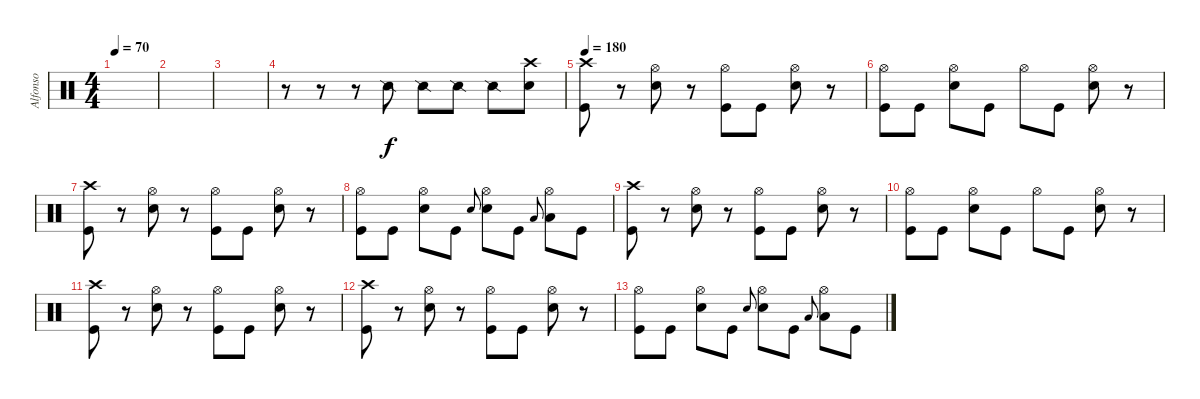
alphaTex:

\track ("Alfonso" "Alfonso") {instrument percussion}
\staff {score}
\articulation defaults
\ts (4 4)
\tempo 70
\clef neutral
\ks c
|
|
|
r.8 r.8 r.8 "Snare (side stick) 2".8 "Snare (side stick) 2".8 "Snare (side stick) 2".8 "Snare (side stick) 2".8 ("Crash high (hit)" "Electric Snare (hit)").8 |
\tempo 180
("Crash high (hit)" "Kick (hit)").8 r.8 ("Hi-Hat (open)" "Snare (hit) 2").8 r.8 ("Hi-Hat (open)" "Kick (hit)").8 "Kick (hit)".8 ("Hi-Hat (open)" "Snare (hit) 2").8 r.8 |
("Kick (hit)" "Hi-Hat (open)").8 "Kick (hit)".8 ("Snare (hit) 2" "Hi-Hat (open)").8 "Kick (hit)".8 "Hi-Hat (open)".8 "Kick (hit)".8 ("Hi-Hat (open)" "Snare (hit) 2").8 r.8 |
("Crash high (hit)" "Kick (hit)").8 r.8 ("Hi-Hat (open)" "Snare (hit) 2").8 r.8 ("Hi-Hat (open)" "Kick (hit)").8 "Kick (hit)".8 ("Hi-Hat (open)" "Snare (hit) 2").8 r.8 |
("Kick (hit)" "Hi-Hat (open)").8 "Kick (hit)".8 ("Snare (hit) 2" "Hi-Hat (open)").8 "Kick (hit)".8 "Snare (hit) 2".8{gr onbeat} ("Snare (hit) 2" "Hi-Hat (open)").8 "Kick (hit)".8 "Low Tom (hit)".8{gr onbeat} ("Hi-Hat (open)" "Low Tom (hit)").8 "Kick (hit)".8 |
("Crash high (hit)" "Kick (hit)").8 r.8 ("Hi-Hat (open)" "Snare (hit) 2").8 r.8 ("Hi-Hat (open)" "Kick (hit)").8 "Kick (hit)".8 ("Hi-Hat (open)" "Snare (hit) 2").8 r.8 |
("Kick (hit)" "Hi-Hat (open)").8 "Kick (hit)".8 ("Snare (hit) 2" "Hi-Hat (open)").8 "Kick (hit)".8 "Hi-Hat (open)".8 "Kick (hit)".8 ("Hi-Hat (open)" "Snare (hit) 2").8 r.8 |
("Crash high (hit)" "Kick (hit)").8 r.8 ("Hi-Hat (open)" "Snare (hit) 2").8 r.8 ("Hi-Hat (open)" "Kick (hit)").8 "Kick (hit)".8 ("Hi-Hat (open)" "Snare (hit) 2").8 r.8 |
("Crash high (hit)" "Kick (hit)").8 r.8 ("Hi-Hat (open)" "Snare (hit) 2").8 r.8 ("Hi-Hat (open)" "Kick (hit)").8 "Kick (hit)".8 ("Hi-Hat (open)" "Snare (hit) 2").8 r.8 |
("Kick (hit)" "Hi-Hat (open)").8 "Kick (hit)".8 ("Snare (hit) 2" "Hi-Hat (open)").8 "Kick (hit)".8 "Snare (hit) 2".8{gr onbeat} ("Snare (hit) 2" "Hi-Hat (open)").8 "Kick (hit)".8 "Low Tom (hit)".8{gr onbeat} ("Hi-Hat (open)" "Low Tom (hit)").8 "Kick (hit)".8
